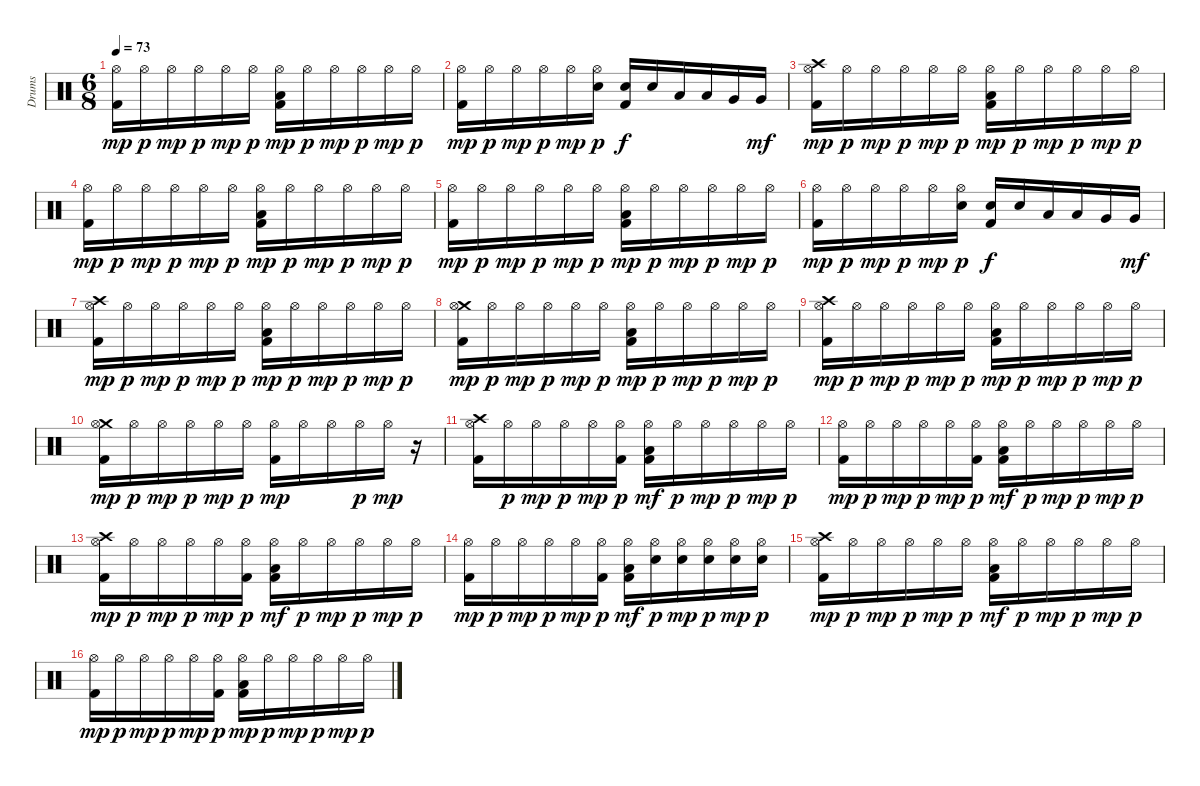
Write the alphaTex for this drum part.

\track ("Drums" "Drums") {instrument percussion}
\staff {score}
\articulation defaults
\ts (6 8)
\tempo 73
\clef neutral
\ks c
("Kick (hit) 2" "Hi-Hat (open)").16{dy mp} "Hi-Hat (open)".16{dy p} "Hi-Hat (open)".16{dy mp} "Hi-Hat (open)".16{dy p} "Hi-Hat (open)".16{dy mp} "Hi-Hat (open)".16{dy p} ("Kick (hit) 2" "Low Floor Tom (hit)" "Hi-Hat (open)").16{dy mp} "Hi-Hat (open)".16{dy p} "Hi-Hat (open)".16{dy mp} "Hi-Hat (open)".16{dy p} "Hi-Hat (open)".16{dy mp} "Hi-Hat (open)".16{dy p} |
("Kick (hit) 2" "Hi-Hat (open)").16{dy mp} "Hi-Hat (open)".16{dy p} "Hi-Hat (open)".16{dy mp} "Hi-Hat (open)".16{dy p} "Hi-Hat (open)".16{dy mp} ("Snare (hit) 2" "Hi-Hat (open)").16{dy p} ("Kick (hit) 2" "Snare (hit) 2").16{dy f} "Snare (hit) 2".16 "Low Tom (hit)".16 "Low Tom (hit)".16 "Very Low Tom (hit)".16 "Very Low Tom (hit)".16{dy mf} |
("Crash high (hit)" "Kick (hit) 2" "Hi-Hat (open)").16{dy mp} "Hi-Hat (open)".16{dy p} "Hi-Hat (open)".16{dy mp} "Hi-Hat (open)".16{dy p} "Hi-Hat (open)".16{dy mp} "Hi-Hat (open)".16{dy p} ("Low Floor Tom (hit)" "Kick (hit) 2" "Hi-Hat (open)").16{dy mp} "Hi-Hat (open)".16{dy p} "Hi-Hat (open)".16{dy mp} "Hi-Hat (open)".16{dy p} "Hi-Hat (open)".16{dy mp} "Hi-Hat (open)".16{dy p} |
("Kick (hit) 2" "Hi-Hat (open)").16{dy mp} "Hi-Hat (open)".16{dy p} "Hi-Hat (open)".16{dy mp} "Hi-Hat (open)".16{dy p} "Hi-Hat (open)".16{dy mp} "Hi-Hat (open)".16{dy p} ("Kick (hit) 2" "Low Floor Tom (hit)" "Hi-Hat (open)").16{dy mp} "Hi-Hat (open)".16{dy p} "Hi-Hat (open)".16{dy mp} "Hi-Hat (open)".16{dy p} "Hi-Hat (open)".16{dy mp} "Hi-Hat (open)".16{dy p} |
("Kick (hit) 2" "Hi-Hat (open)").16{dy mp} "Hi-Hat (open)".16{dy p} "Hi-Hat (open)".16{dy mp} "Hi-Hat (open)".16{dy p} "Hi-Hat (open)".16{dy mp} "Hi-Hat (open)".16{dy p} ("Kick (hit) 2" "Low Floor Tom (hit)" "Hi-Hat (open)").16{dy mp} "Hi-Hat (open)".16{dy p} "Hi-Hat (open)".16{dy mp} "Hi-Hat (open)".16{dy p} "Hi-Hat (open)".16{dy mp} "Hi-Hat (open)".16{dy p} |
("Kick (hit) 2" "Hi-Hat (open)").16{dy mp} "Hi-Hat (open)".16{dy p} "Hi-Hat (open)".16{dy mp} "Hi-Hat (open)".16{dy p} "Hi-Hat (open)".16{dy mp} ("Snare (hit) 2" "Hi-Hat (open)").16{dy p} ("Kick (hit) 2" "Snare (hit) 2").16{dy f} "Snare (hit) 2".16 "Low Tom (hit)".16 "Low Tom (hit)".16 "Very Low Tom (hit)".16 "Very Low Tom (hit)".16{dy mf} |
("Crash high (hit)" "Kick (hit) 2" "Hi-Hat (open)").16{dy mp} "Hi-Hat (open)".16{dy p} "Hi-Hat (open)".16{dy mp} "Hi-Hat (open)".16{dy p} "Hi-Hat (open)".16{dy mp} "Hi-Hat (open)".16{dy p} ("Low Floor Tom (hit)" "Kick (hit) 2" "Hi-Hat (open)").16{dy mp} "Hi-Hat (open)".16{dy p} "Hi-Hat (open)".16{dy mp} "Hi-Hat (open)".16{dy p} "Hi-Hat (open)".16{dy mp} "Hi-Hat (open)".16{dy p} |
("Crash medium (hit)" "Kick (hit) 2" "Hi-Hat (open)").16{dy mp} "Hi-Hat (open)".16{dy p} "Hi-Hat (open)".16{dy mp} "Hi-Hat (open)".16{dy p} "Hi-Hat (open)".16{dy mp} "Hi-Hat (open)".16{dy p} ("Kick (hit) 2" "Low Floor Tom (hit)" "Hi-Hat (open)").16{dy mp} "Hi-Hat (open)".16{dy p} "Hi-Hat (open)".16{dy mp} "Hi-Hat (open)".16{dy p} "Hi-Hat (open)".16{dy mp} "Hi-Hat (open)".16{dy p} |
("Crash high (hit)" "Kick (hit) 2" "Hi-Hat (open)").16{dy mp} "Hi-Hat (open)".16{dy p} "Hi-Hat (open)".16{dy mp} "Hi-Hat (open)".16{dy p} "Hi-Hat (open)".16{dy mp} "Hi-Hat (open)".16{dy p} ("Kick (hit) 2" "Low Floor Tom (hit)" "Hi-Hat (open)").16{dy mp} "Hi-Hat (open)".16{dy p} "Hi-Hat (open)".16{dy mp} "Hi-Hat (open)".16{dy p} "Hi-Hat (open)".16{dy mp} "Hi-Hat (open)".16{dy p} |
("Kick (hit) 2" "Crash medium (hit)" "Hi-Hat (open)").16{dy mp} "Hi-Hat (open)".16{dy p} "Hi-Hat (open)".16{dy mp} "Hi-Hat (open)".16{dy p} "Hi-Hat (open)".16{dy mp} "Hi-Hat (open)".16{dy p} ("Kick (hit) 2" "Hi-Hat (open)").16{dy mp} "Hi-Hat (open)".16 "Hi-Hat (open)".16 "Hi-Hat (open)".16{dy p} "Hi-Hat (open)".16{dy mp} r.16 |
("Crash high (hit)" "Hi-Hat (open)" "Kick (hit) 2").16 "Hi-Hat (open)".16{dy p} "Hi-Hat (open)".16{dy mp} "Hi-Hat (open)".16{dy p} "Hi-Hat (open)".16{dy mp} ("Kick (hit) 2" "Hi-Hat (open)").16{dy p} ("Hi-Hat (open)" "Low Floor Tom (hit)" "Kick (hit) 2").16{dy mf} "Hi-Hat (open)".16{dy p} "Hi-Hat (open)".16{dy mp} "Hi-Hat (open)".16{dy p} "Hi-Hat (open)".16{dy mp} "Hi-Hat (open)".16{dy p} |
("Hi-Hat (open)" "Kick (hit) 2").16{dy mp} "Hi-Hat (open)".16{dy p} "Hi-Hat (open)".16{dy mp} "Hi-Hat (open)".16{dy p} "Hi-Hat (open)".16{dy mp} ("Kick (hit) 2" "Hi-Hat (open)").16{dy p} ("Hi-Hat (open)" "Low Floor Tom (hit)" "Kick (hit) 2").16{dy mf} "Hi-Hat (open)".16{dy p} "Hi-Hat (open)".16{dy mp} "Hi-Hat (open)".16{dy p} "Hi-Hat (open)".16{dy mp} "Hi-Hat (open)".16{dy p} |
("Crash high (hit)" "Hi-Hat (open)" "Kick (hit) 2").16{dy mp} "Hi-Hat (open)".16{dy p} "Hi-Hat (open)".16{dy mp} "Hi-Hat (open)".16{dy p} "Hi-Hat (open)".16{dy mp} ("Kick (hit) 2" "Hi-Hat (open)").16{dy p} ("Hi-Hat (open)" "Low Floor Tom (hit)" "Kick (hit) 2").16{dy mf} "Hi-Hat (open)".16{dy p} "Hi-Hat (open)".16{dy mp} "Hi-Hat (open)".16{dy p} "Hi-Hat (open)".16{dy mp} "Hi-Hat (open)".16{dy p} |
("Hi-Hat (open)" "Kick (hit) 2").16{dy mp} "Hi-Hat (open)".16{dy p} "Hi-Hat (open)".16{dy mp} "Hi-Hat (open)".16{dy p} "Hi-Hat (open)".16{dy mp} ("Kick (hit) 2" "Hi-Hat (open)").16{dy p} ("Hi-Hat (open)" "Low Floor Tom (hit)" "Kick (hit) 2").16{dy mf} ("Snare (hit) 2" "Hi-Hat (open)").16{dy p} ("Snare (hit) 2" "Hi-Hat (open)").16{dy mp} ("Snare (hit) 2" "Hi-Hat (open)").16{dy p} ("Snare (hit) 2" "Hi-Hat (open)").16{dy mp} ("Snare (hit) 2" "Hi-Hat (open)").16{dy p} |
("Hi-Hat (open)" "Crash high (hit)" "Kick (hit) 2").16{dy mp} "Hi-Hat (open)".16{dy p} "Hi-Hat (open)".16{dy mp} "Hi-Hat (open)".16{dy p} "Hi-Hat (open)".16{dy mp} "Hi-Hat (open)".16{dy p} ("Hi-Hat (open)" "Low Floor Tom (hit)" "Kick (hit) 2").16{dy mf} "Hi-Hat (open)".16{dy p} "Hi-Hat (open)".16{dy mp} "Hi-Hat (open)".16{dy p} "Hi-Hat (open)".16{dy mp} "Hi-Hat (open)".16{dy p} |
("Hi-Hat (open)" "Kick (hit) 2").16{dy mp} "Hi-Hat (open)".16{dy p} "Hi-Hat (open)".16{dy mp} "Hi-Hat (open)".16{dy p} "Hi-Hat (open)".16{dy mp} ("Kick (hit) 2" "Hi-Hat (open)").16{dy p} ("Kick (hit) 2" "Low Floor Tom (hit)" "Hi-Hat (open)").16{dy mp} "Hi-Hat (open)".16{dy p} "Hi-Hat (open)".16{dy mp} "Hi-Hat (open)".16{dy p} "Hi-Hat (open)".16{dy mp} "Hi-Hat (open)".16{dy p}
